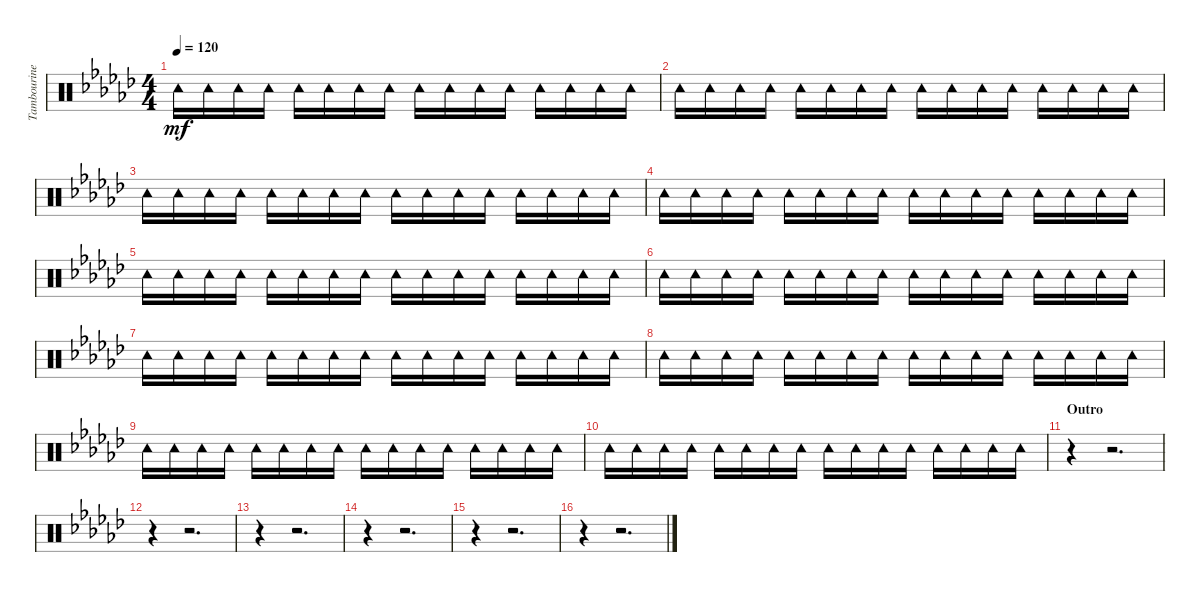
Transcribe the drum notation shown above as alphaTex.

\track ("Tambourine" "Tambourine") {instrument percussion}
\staff {score}
\articulation defaults
\ts (4 4)
\tempo 120
\clef neutral
\ks ebminor "Tambourine (hit)".16{dy mf} "Tambourine (hit)".16 "Tambourine (hit)".16 "Tambourine (hit)".16 "Tambourine (hit)".16 "Tambourine (hit)".16 "Tambourine (hit)".16 "Tambourine (hit)".16 "Tambourine (hit)".16 "Tambourine (hit)".16 "Tambourine (hit)".16 "Tambourine (hit)".16 "Tambourine (hit)".16 "Tambourine (hit)".16 "Tambourine (hit)".16 "Tambourine (hit)".16
|
"Tambourine (hit)".16 "Tambourine (hit)".16 "Tambourine (hit)".16 "Tambourine (hit)".16 "Tambourine (hit)".16 "Tambourine (hit)".16 "Tambourine (hit)".16 "Tambourine (hit)".16 "Tambourine (hit)".16 "Tambourine (hit)".16 "Tambourine (hit)".16 "Tambourine (hit)".16 "Tambourine (hit)".16 "Tambourine (hit)".16 "Tambourine (hit)".16 "Tambourine (hit)".16 |
"Tambourine (hit)".16 "Tambourine (hit)".16 "Tambourine (hit)".16 "Tambourine (hit)".16 "Tambourine (hit)".16 "Tambourine (hit)".16 "Tambourine (hit)".16 "Tambourine (hit)".16 "Tambourine (hit)".16 "Tambourine (hit)".16 "Tambourine (hit)".16 "Tambourine (hit)".16 "Tambourine (hit)".16 "Tambourine (hit)".16 "Tambourine (hit)".16 "Tambourine (hit)".16 |
"Tambourine (hit)".16 "Tambourine (hit)".16 "Tambourine (hit)".16 "Tambourine (hit)".16 "Tambourine (hit)".16 "Tambourine (hit)".16 "Tambourine (hit)".16 "Tambourine (hit)".16 "Tambourine (hit)".16 "Tambourine (hit)".16 "Tambourine (hit)".16 "Tambourine (hit)".16 "Tambourine (hit)".16 "Tambourine (hit)".16 "Tambourine (hit)".16 "Tambourine (hit)".16 |
"Tambourine (hit)".16 "Tambourine (hit)".16 "Tambourine (hit)".16 "Tambourine (hit)".16 "Tambourine (hit)".16 "Tambourine (hit)".16 "Tambourine (hit)".16 "Tambourine (hit)".16 "Tambourine (hit)".16 "Tambourine (hit)".16 "Tambourine (hit)".16 "Tambourine (hit)".16 "Tambourine (hit)".16 "Tambourine (hit)".16 "Tambourine (hit)".16 "Tambourine (hit)".16 |
"Tambourine (hit)".16 "Tambourine (hit)".16 "Tambourine (hit)".16 "Tambourine (hit)".16 "Tambourine (hit)".16 "Tambourine (hit)".16 "Tambourine (hit)".16 "Tambourine (hit)".16 "Tambourine (hit)".16 "Tambourine (hit)".16 "Tambourine (hit)".16 "Tambourine (hit)".16 "Tambourine (hit)".16 "Tambourine (hit)".16 "Tambourine (hit)".16 "Tambourine (hit)".16 |
"Tambourine (hit)".16 "Tambourine (hit)".16 "Tambourine (hit)".16 "Tambourine (hit)".16 "Tambourine (hit)".16 "Tambourine (hit)".16 "Tambourine (hit)".16 "Tambourine (hit)".16 "Tambourine (hit)".16 "Tambourine (hit)".16 "Tambourine (hit)".16 "Tambourine (hit)".16 "Tambourine (hit)".16 "Tambourine (hit)".16 "Tambourine (hit)".16 "Tambourine (hit)".16 |
"Tambourine (hit)".16 "Tambourine (hit)".16 "Tambourine (hit)".16 "Tambourine (hit)".16 "Tambourine (hit)".16 "Tambourine (hit)".16 "Tambourine (hit)".16 "Tambourine (hit)".16 "Tambourine (hit)".16 "Tambourine (hit)".16 "Tambourine (hit)".16 "Tambourine (hit)".16 "Tambourine (hit)".16 "Tambourine (hit)".16 "Tambourine (hit)".16 "Tambourine (hit)".16 |
"Tambourine (hit)".16 "Tambourine (hit)".16 "Tambourine (hit)".16 "Tambourine (hit)".16 "Tambourine (hit)".16 "Tambourine (hit)".16 "Tambourine (hit)".16 "Tambourine (hit)".16 "Tambourine (hit)".16 "Tambourine (hit)".16 "Tambourine (hit)".16 "Tambourine (hit)".16 "Tambourine (hit)".16 "Tambourine (hit)".16 "Tambourine (hit)".16 "Tambourine (hit)".16 |
"Tambourine (hit)".16 "Tambourine (hit)".16 "Tambourine (hit)".16 "Tambourine (hit)".16 "Tambourine (hit)".16 "Tambourine (hit)".16 "Tambourine (hit)".16 "Tambourine (hit)".16 "Tambourine (hit)".16 "Tambourine (hit)".16 "Tambourine (hit)".16 "Tambourine (hit)".16 "Tambourine (hit)".16 "Tambourine (hit)".16 "Tambourine (hit)".16 "Tambourine (hit)".16 |
\section ("" "Outro")
r.4 r.2{d} |
r.4 r.2{d} |
r.4 r.2{d} |
r.4 r.2{d} |
r.4 r.2{d} |
r.4 r.2{d}
